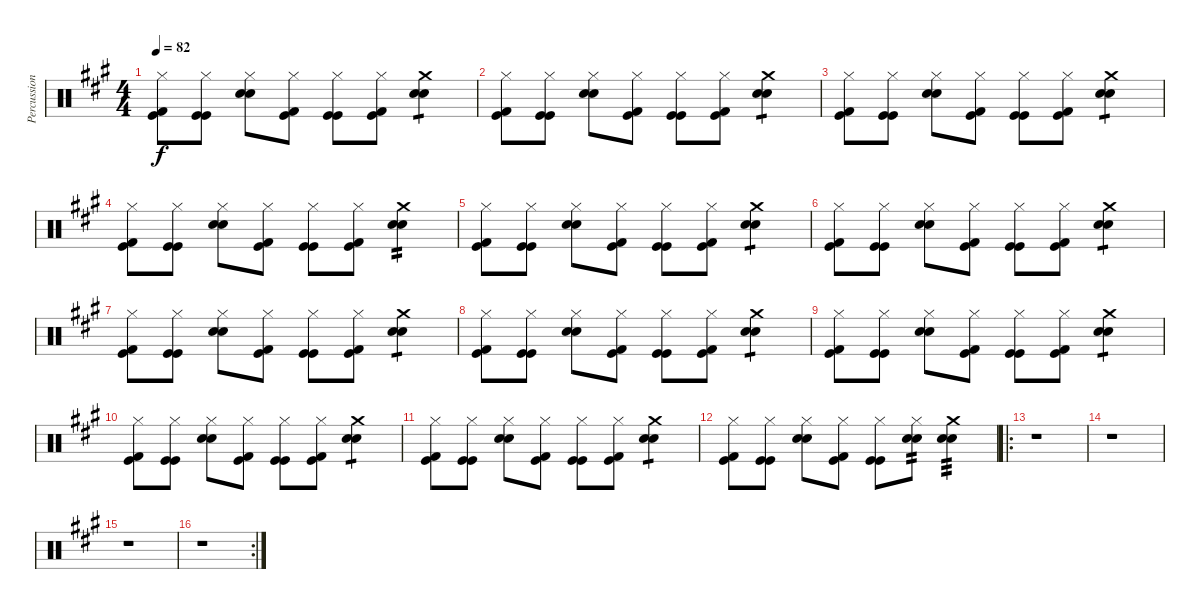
\track ("Percussion" "Percussion") {instrument percussion}
\staff {score}
\articulation defaults
\ts (4 4)
\tempo 82
\clef neutral
\ks a
("Hi-Hat (closed)" "Kick (hit)" "Kick (hit) 2").8{dy f} ("Hi-Hat (closed)" "Kick (hit)" "Kick (hit)").8 ("Hi-Hat (closed)" "Electric Snare (hit)" "Snare (hit) 2").8 ("Hi-Hat (closed)" "Kick (hit)" "Kick (hit) 2").8 ("Hi-Hat (closed)" "Kick (hit)" "Kick (hit)").8 ("Hi-Hat (closed)" "Kick (hit)" "Kick (hit) 2").8 ("Crash medium (hit)" "Electric Snare (hit)" "Snare (hit) 2").4{tp 1} |
("Hi-Hat (closed)" "Kick (hit)" "Kick (hit) 2").8 ("Hi-Hat (closed)" "Kick (hit)" "Kick (hit)").8 ("Hi-Hat (closed)" "Electric Snare (hit)" "Snare (hit) 2").8 ("Hi-Hat (closed)" "Kick (hit)" "Kick (hit) 2").8 ("Hi-Hat (closed)" "Kick (hit)" "Kick (hit)").8 ("Hi-Hat (closed)" "Kick (hit)" "Kick (hit) 2").8 ("Crash medium (hit)" "Electric Snare (hit)" "Snare (hit) 2").4{tp 1} |
("Hi-Hat (closed)" "Kick (hit)" "Kick (hit) 2").8 ("Hi-Hat (closed)" "Kick (hit)" "Kick (hit)").8 ("Hi-Hat (closed)" "Electric Snare (hit)" "Snare (hit) 2").8 ("Hi-Hat (closed)" "Kick (hit)" "Kick (hit) 2").8 ("Hi-Hat (closed)" "Kick (hit)" "Kick (hit)").8 ("Hi-Hat (closed)" "Kick (hit)" "Kick (hit) 2").8 ("Crash medium (hit)" "Electric Snare (hit)" "Snare (hit) 2").4{tp 1} |
("Hi-Hat (closed)" "Kick (hit)" "Kick (hit) 2").8 ("Hi-Hat (closed)" "Kick (hit)" "Kick (hit)").8 ("Hi-Hat (closed)" "Electric Snare (hit)" "Snare (hit) 2").8 ("Hi-Hat (closed)" "Kick (hit)" "Kick (hit) 2").8 ("Hi-Hat (closed)" "Kick (hit)" "Kick (hit)").8 ("Hi-Hat (closed)" "Kick (hit)" "Kick (hit) 2").8 ("Crash medium (hit)" "Electric Snare (hit)" "Snare (hit) 2").4{tp 2} |
("Hi-Hat (closed)" "Kick (hit)" "Kick (hit) 2").8 ("Hi-Hat (closed)" "Kick (hit)" "Kick (hit)").8 ("Hi-Hat (closed)" "Electric Snare (hit)" "Snare (hit) 2").8 ("Hi-Hat (closed)" "Kick (hit)" "Kick (hit) 2").8 ("Hi-Hat (closed)" "Kick (hit)" "Kick (hit)").8 ("Hi-Hat (closed)" "Kick (hit)" "Kick (hit) 2").8 ("Crash medium (hit)" "Electric Snare (hit)" "Snare (hit) 2").4{tp 1} |
("Hi-Hat (closed)" "Kick (hit)" "Kick (hit) 2").8 ("Hi-Hat (closed)" "Kick (hit)" "Kick (hit)").8 ("Hi-Hat (closed)" "Electric Snare (hit)" "Snare (hit) 2").8 ("Hi-Hat (closed)" "Kick (hit)" "Kick (hit) 2").8 ("Hi-Hat (closed)" "Kick (hit)" "Kick (hit)").8 ("Hi-Hat (closed)" "Kick (hit)" "Kick (hit) 2").8 ("Crash medium (hit)" "Electric Snare (hit)" "Snare (hit) 2").4{tp 1} |
("Hi-Hat (closed)" "Kick (hit)" "Kick (hit) 2").8 ("Hi-Hat (closed)" "Kick (hit)" "Kick (hit)").8 ("Hi-Hat (closed)" "Electric Snare (hit)" "Snare (hit) 2").8 ("Hi-Hat (closed)" "Kick (hit)" "Kick (hit) 2").8 ("Hi-Hat (closed)" "Kick (hit)" "Kick (hit)").8 ("Hi-Hat (closed)" "Kick (hit)" "Kick (hit) 2").8 ("Crash medium (hit)" "Electric Snare (hit)" "Snare (hit) 2").4{tp 1} |
("Hi-Hat (closed)" "Kick (hit)" "Kick (hit) 2").8 ("Hi-Hat (closed)" "Kick (hit)" "Kick (hit)").8 ("Hi-Hat (closed)" "Electric Snare (hit)" "Snare (hit) 2").8 ("Hi-Hat (closed)" "Kick (hit)" "Kick (hit) 2").8 ("Hi-Hat (closed)" "Kick (hit)" "Kick (hit)").8 ("Hi-Hat (closed)" "Kick (hit)" "Kick (hit) 2").8 ("Crash medium (hit)" "Electric Snare (hit)" "Snare (hit) 2").4{tp 1} |
("Hi-Hat (closed)" "Kick (hit)" "Kick (hit) 2").8 ("Hi-Hat (closed)" "Kick (hit)" "Kick (hit)").8 ("Hi-Hat (closed)" "Electric Snare (hit)" "Snare (hit) 2").8 ("Hi-Hat (closed)" "Kick (hit)" "Kick (hit) 2").8 ("Hi-Hat (closed)" "Kick (hit)" "Kick (hit)").8 ("Hi-Hat (closed)" "Kick (hit)" "Kick (hit) 2").8 ("Crash medium (hit)" "Electric Snare (hit)" "Snare (hit) 2").4{tp 1} |
("Hi-Hat (closed)" "Kick (hit)" "Kick (hit) 2").8 ("Hi-Hat (closed)" "Kick (hit)" "Kick (hit)").8 ("Hi-Hat (closed)" "Electric Snare (hit)" "Snare (hit) 2").8 ("Hi-Hat (closed)" "Kick (hit)" "Kick (hit) 2").8 ("Hi-Hat (closed)" "Kick (hit)" "Kick (hit)").8 ("Hi-Hat (closed)" "Kick (hit)" "Kick (hit) 2").8 ("Crash medium (hit)" "Electric Snare (hit)" "Snare (hit) 2").4{tp 1} |
("Hi-Hat (closed)" "Kick (hit)" "Kick (hit) 2").8 ("Hi-Hat (closed)" "Kick (hit)" "Kick (hit)").8 ("Hi-Hat (closed)" "Electric Snare (hit)" "Snare (hit) 2").8 ("Hi-Hat (closed)" "Kick (hit)" "Kick (hit) 2").8 ("Hi-Hat (closed)" "Kick (hit)" "Kick (hit)").8 ("Hi-Hat (closed)" "Kick (hit)" "Kick (hit) 2").8 ("Crash medium (hit)" "Electric Snare (hit)" "Snare (hit) 2").4{tp 1} |
("Hi-Hat (closed)" "Kick (hit)" "Kick (hit) 2").8 ("Hi-Hat (closed)" "Kick (hit)" "Kick (hit)").8 ("Hi-Hat (closed)" "Electric Snare (hit)" "Snare (hit) 2").8 ("Hi-Hat (closed)" "Kick (hit)" "Kick (hit) 2").8 ("Hi-Hat (closed)" "Kick (hit)" "Kick (hit)").8 ("Hi-Hat (closed)" "Electric Snare (hit)" "Snare (hit) 2").8{tp 2} ("Crash medium (hit)" "Electric Snare (hit)" "Snare (hit) 2").4{tp 3} |
\ro
r.1 |
r.1 |
r.1 |
\rc 2
r.1
